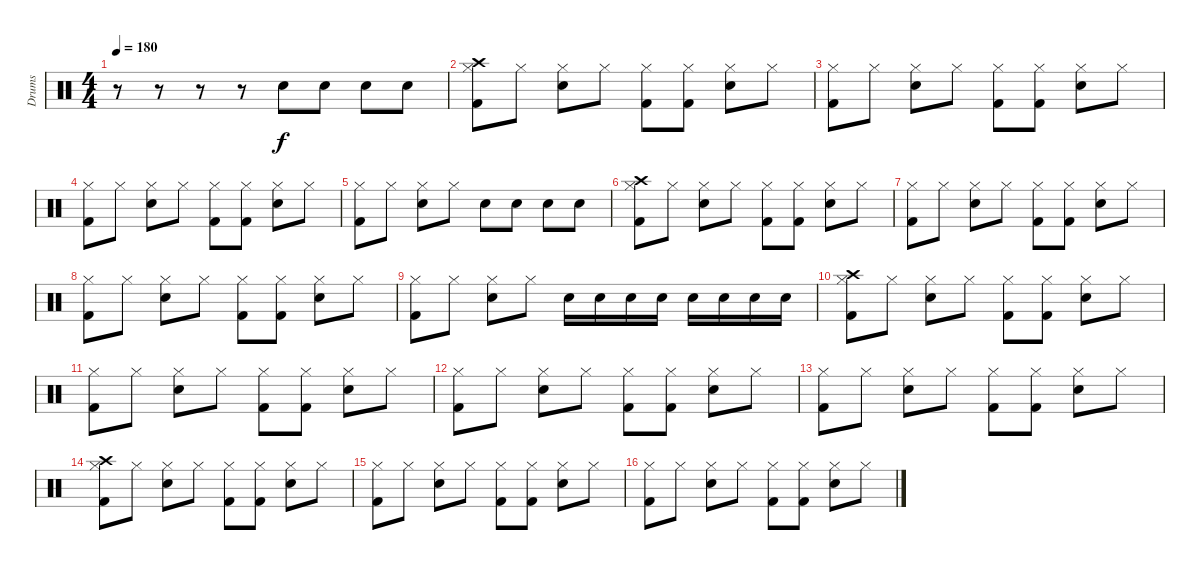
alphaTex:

\track ("Drums" "Drums") {instrument percussion}
\staff {score}
\articulation defaults
\ts (4 4)
\tempo 180
\clef neutral
\ks c
r.8{dy f} r.8 r.8 r.8 "Snare (hit) 2".8 "Snare (hit) 2".8 "Snare (hit) 2".8 "Snare (hit) 2".8 |
("Crash high (hit)" "Hi-Hat (closed)" "Kick (hit) 2").8 "Hi-Hat (closed)".8 ("Hi-Hat (closed)" "Snare (hit) 2").8 "Hi-Hat (closed)".8 ("Hi-Hat (closed)" "Kick (hit) 2").8 ("Hi-Hat (closed)" "Kick (hit) 2").8 ("Hi-Hat (closed)" "Snare (hit) 2").8 "Hi-Hat (closed)".8 |
("Hi-Hat (closed)" "Kick (hit) 2").8 "Hi-Hat (closed)".8 ("Hi-Hat (closed)" "Snare (hit) 2").8 "Hi-Hat (closed)".8 ("Hi-Hat (closed)" "Kick (hit) 2").8 ("Hi-Hat (closed)" "Kick (hit) 2").8 ("Hi-Hat (closed)" "Snare (hit) 2").8 "Hi-Hat (closed)".8 |
("Hi-Hat (closed)" "Kick (hit) 2").8 "Hi-Hat (closed)".8 ("Hi-Hat (closed)" "Snare (hit) 2").8 "Hi-Hat (closed)".8 ("Hi-Hat (closed)" "Kick (hit) 2").8 ("Hi-Hat (closed)" "Kick (hit) 2").8 ("Hi-Hat (closed)" "Snare (hit) 2").8 "Hi-Hat (closed)".8 |
("Hi-Hat (closed)" "Kick (hit) 2").8 "Hi-Hat (closed)".8 ("Hi-Hat (closed)" "Snare (hit) 2").8 "Hi-Hat (closed)".8 "Snare (hit) 2".8 "Snare (hit) 2".8 "Snare (hit) 2".8 "Snare (hit) 2".8 |
("Crash high (hit)" "Hi-Hat (closed)" "Kick (hit) 2").8 "Hi-Hat (closed)".8 ("Hi-Hat (closed)" "Snare (hit) 2").8 "Hi-Hat (closed)".8 ("Hi-Hat (closed)" "Kick (hit) 2").8 ("Hi-Hat (closed)" "Kick (hit) 2").8 ("Hi-Hat (closed)" "Snare (hit) 2").8 "Hi-Hat (closed)".8 |
("Hi-Hat (closed)" "Kick (hit) 2").8 "Hi-Hat (closed)".8 ("Hi-Hat (closed)" "Snare (hit) 2").8 "Hi-Hat (closed)".8 ("Hi-Hat (closed)" "Kick (hit) 2").8 ("Hi-Hat (closed)" "Kick (hit) 2").8 ("Hi-Hat (closed)" "Snare (hit) 2").8 "Hi-Hat (closed)".8 |
("Hi-Hat (closed)" "Kick (hit) 2").8 "Hi-Hat (closed)".8 ("Hi-Hat (closed)" "Snare (hit) 2").8 "Hi-Hat (closed)".8 ("Hi-Hat (closed)" "Kick (hit) 2").8 ("Hi-Hat (closed)" "Kick (hit) 2").8 ("Hi-Hat (closed)" "Snare (hit) 2").8 "Hi-Hat (closed)".8 |
("Hi-Hat (closed)" "Kick (hit) 2").8 "Hi-Hat (closed)".8 ("Hi-Hat (closed)" "Snare (hit) 2").8 "Hi-Hat (closed)".8 "Snare (hit) 2".16 "Snare (hit) 2".16 "Snare (hit) 2".16 "Snare (hit) 2".16 "Snare (hit) 2".16 "Snare (hit) 2".16 "Snare (hit) 2".16 "Snare (hit) 2".16 |
("Crash high (hit)" "Hi-Hat (closed)" "Kick (hit) 2").8 "Hi-Hat (closed)".8 ("Hi-Hat (closed)" "Snare (hit) 2").8 "Hi-Hat (closed)".8 ("Hi-Hat (closed)" "Kick (hit) 2").8 ("Hi-Hat (closed)" "Kick (hit) 2").8 ("Hi-Hat (closed)" "Snare (hit) 2").8 "Hi-Hat (closed)".8 |
("Hi-Hat (closed)" "Kick (hit) 2").8 "Hi-Hat (closed)".8 ("Hi-Hat (closed)" "Snare (hit) 2").8 "Hi-Hat (closed)".8 ("Hi-Hat (closed)" "Kick (hit) 2").8 ("Hi-Hat (closed)" "Kick (hit) 2").8 ("Hi-Hat (closed)" "Snare (hit) 2").8 "Hi-Hat (closed)".8 |
("Hi-Hat (closed)" "Kick (hit) 2").8 "Hi-Hat (closed)".8 ("Hi-Hat (closed)" "Snare (hit) 2").8 "Hi-Hat (closed)".8 ("Hi-Hat (closed)" "Kick (hit) 2").8 ("Hi-Hat (closed)" "Kick (hit) 2").8 ("Hi-Hat (closed)" "Snare (hit) 2").8 "Hi-Hat (closed)".8 |
("Hi-Hat (closed)" "Kick (hit) 2").8 "Hi-Hat (closed)".8 ("Hi-Hat (closed)" "Snare (hit) 2").8 "Hi-Hat (closed)".8 ("Hi-Hat (closed)" "Kick (hit) 2").8 ("Hi-Hat (closed)" "Kick (hit) 2").8 ("Hi-Hat (closed)" "Snare (hit) 2").8 "Hi-Hat (closed)".8 |
("Crash high (hit)" "Hi-Hat (closed)" "Kick (hit) 2").8 "Hi-Hat (closed)".8 ("Hi-Hat (closed)" "Snare (hit) 2").8 "Hi-Hat (closed)".8 ("Hi-Hat (closed)" "Kick (hit) 2").8 ("Hi-Hat (closed)" "Kick (hit) 2").8 ("Hi-Hat (closed)" "Snare (hit) 2").8 "Hi-Hat (closed)".8 |
("Hi-Hat (closed)" "Kick (hit) 2").8 "Hi-Hat (closed)".8 ("Hi-Hat (closed)" "Snare (hit) 2").8 "Hi-Hat (closed)".8 ("Hi-Hat (closed)" "Kick (hit) 2").8 ("Hi-Hat (closed)" "Kick (hit) 2").8 ("Hi-Hat (closed)" "Snare (hit) 2").8 "Hi-Hat (closed)".8 |
("Hi-Hat (closed)" "Kick (hit) 2").8 "Hi-Hat (closed)".8 ("Hi-Hat (closed)" "Snare (hit) 2").8 "Hi-Hat (closed)".8 ("Hi-Hat (closed)" "Kick (hit) 2").8 ("Hi-Hat (closed)" "Kick (hit) 2").8 ("Hi-Hat (closed)" "Snare (hit) 2").8 "Hi-Hat (closed)".8
